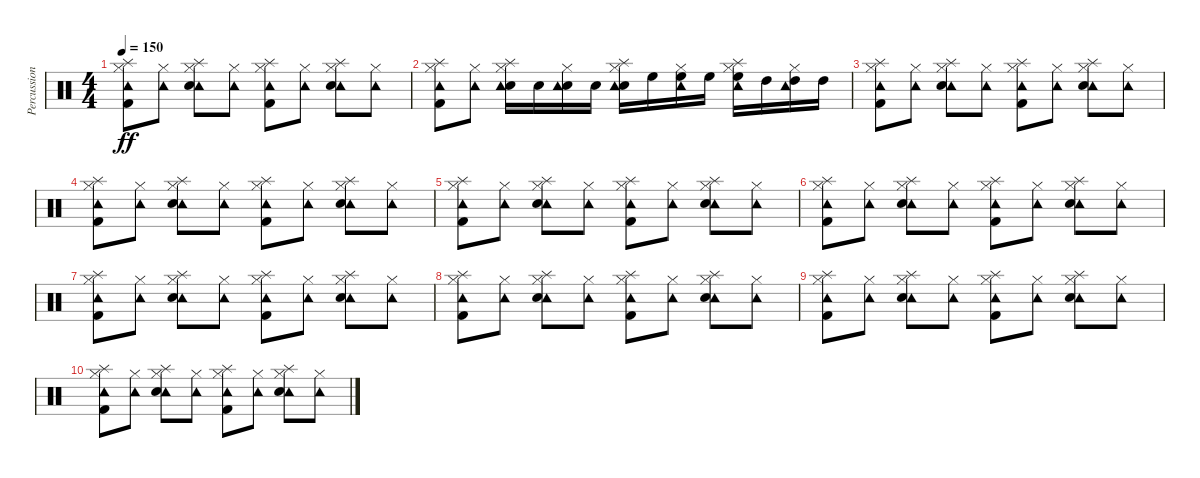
\track ("Percussion" "Percussion") {instrument percussion}
\staff {score}
\articulation defaults
\ts (4 4)
\tempo 150
\clef neutral
\ks c
("Hi-Hat (closed)" "Tambourine (hit)" "Kick (hit) 2" "Splash (hit)").8{dy ff} ("Hi-Hat (closed)" "Tambourine (hit)").8 ("Hi-Hat (closed)" "Tambourine (hit)" "Electric Snare (hit)" "Splash (hit)").8 ("Hi-Hat (closed)" "Tambourine (hit)").8 ("Hi-Hat (closed)" "Tambourine (hit)" "Kick (hit) 2" "Splash (hit)").8 ("Hi-Hat (closed)" "Tambourine (hit)").8 ("Hi-Hat (closed)" "Tambourine (hit)" "Electric Snare (hit)" "Splash (hit)").8 ("Hi-Hat (closed)" "Tambourine (hit)").8 |
("Hi-Hat (closed)" "Kick (hit) 2" "Tambourine (hit)" "Splash (hit)").8 ("Hi-Hat (closed)" "Tambourine (hit)").8 ("Hi-Hat (closed)" "Electric Snare (hit)" "Tambourine (hit)" "Splash (hit)").16 "Electric Snare (hit)".16 ("Hi-Hat (closed)" "Electric Snare (hit)" "Tambourine (hit)").16 "Electric Snare (hit)".16 ("Hi-Hat (closed)" "Electric Snare (hit)" "Tambourine (hit)" "Splash (hit)").16 "High Floor Tom (hit)".16 ("Hi-Hat (closed)" "High Floor Tom (hit)" "Tambourine (hit)").16 "High Floor Tom (hit)".16 ("Hi-Hat (closed)" "High Floor Tom (hit)" "Tambourine (hit)" "Splash (hit)").16 "High Tom (hit)".16 ("Hi-Hat (closed)" "High Tom (hit)" "Tambourine (hit)").16 "High Tom (hit)".16 |
("Hi-Hat (closed)" "Tambourine (hit)" "Kick (hit) 2" "Splash (hit)").8 ("Hi-Hat (closed)" "Tambourine (hit)").8 ("Hi-Hat (closed)" "Tambourine (hit)" "Electric Snare (hit)" "Splash (hit)").8 ("Hi-Hat (closed)" "Tambourine (hit)").8 ("Hi-Hat (closed)" "Tambourine (hit)" "Kick (hit) 2" "Splash (hit)").8 ("Hi-Hat (closed)" "Tambourine (hit)").8 ("Hi-Hat (closed)" "Tambourine (hit)" "Electric Snare (hit)" "Splash (hit)").8 ("Hi-Hat (closed)" "Tambourine (hit)").8 |
("Hi-Hat (closed)" "Tambourine (hit)" "Kick (hit) 2" "Splash (hit)").8 ("Hi-Hat (closed)" "Tambourine (hit)").8 ("Hi-Hat (closed)" "Tambourine (hit)" "Electric Snare (hit)" "Splash (hit)").8 ("Hi-Hat (closed)" "Tambourine (hit)").8 ("Hi-Hat (closed)" "Tambourine (hit)" "Kick (hit) 2" "Splash (hit)").8 ("Hi-Hat (closed)" "Tambourine (hit)").8 ("Hi-Hat (closed)" "Tambourine (hit)" "Electric Snare (hit)" "Splash (hit)").8 ("Hi-Hat (closed)" "Tambourine (hit)").8 |
("Hi-Hat (closed)" "Tambourine (hit)" "Kick (hit) 2" "Splash (hit)").8 ("Hi-Hat (closed)" "Tambourine (hit)").8 ("Hi-Hat (closed)" "Tambourine (hit)" "Electric Snare (hit)" "Splash (hit)").8 ("Hi-Hat (closed)" "Tambourine (hit)").8 ("Hi-Hat (closed)" "Tambourine (hit)" "Kick (hit) 2" "Splash (hit)").8 ("Hi-Hat (closed)" "Tambourine (hit)").8 ("Hi-Hat (closed)" "Tambourine (hit)" "Electric Snare (hit)" "Splash (hit)").8 ("Hi-Hat (closed)" "Tambourine (hit)").8 |
("Hi-Hat (closed)" "Tambourine (hit)" "Kick (hit) 2" "Splash (hit)").8 ("Hi-Hat (closed)" "Tambourine (hit)").8 ("Hi-Hat (closed)" "Tambourine (hit)" "Electric Snare (hit)" "Splash (hit)").8 ("Hi-Hat (closed)" "Tambourine (hit)").8 ("Hi-Hat (closed)" "Tambourine (hit)" "Kick (hit) 2" "Splash (hit)").8 ("Hi-Hat (closed)" "Tambourine (hit)").8 ("Hi-Hat (closed)" "Tambourine (hit)" "Electric Snare (hit)" "Splash (hit)").8 ("Hi-Hat (closed)" "Tambourine (hit)").8 |
("Hi-Hat (closed)" "Tambourine (hit)" "Kick (hit) 2" "Splash (hit)").8 ("Hi-Hat (closed)" "Tambourine (hit)").8 ("Hi-Hat (closed)" "Tambourine (hit)" "Electric Snare (hit)" "Splash (hit)").8 ("Hi-Hat (closed)" "Tambourine (hit)").8 ("Hi-Hat (closed)" "Tambourine (hit)" "Kick (hit) 2" "Splash (hit)").8 ("Hi-Hat (closed)" "Tambourine (hit)").8 ("Hi-Hat (closed)" "Tambourine (hit)" "Electric Snare (hit)" "Splash (hit)").8 ("Hi-Hat (closed)" "Tambourine (hit)").8 |
("Hi-Hat (closed)" "Tambourine (hit)" "Kick (hit) 2" "Splash (hit)").8 ("Hi-Hat (closed)" "Tambourine (hit)").8 ("Hi-Hat (closed)" "Tambourine (hit)" "Electric Snare (hit)" "Splash (hit)").8 ("Hi-Hat (closed)" "Tambourine (hit)").8 ("Hi-Hat (closed)" "Tambourine (hit)" "Kick (hit) 2" "Splash (hit)").8 ("Hi-Hat (closed)" "Tambourine (hit)").8 ("Hi-Hat (closed)" "Tambourine (hit)" "Electric Snare (hit)" "Splash (hit)").8 ("Hi-Hat (closed)" "Tambourine (hit)").8 |
("Hi-Hat (closed)" "Tambourine (hit)" "Kick (hit) 2" "Splash (hit)").8 ("Hi-Hat (closed)" "Tambourine (hit)").8 ("Hi-Hat (closed)" "Tambourine (hit)" "Electric Snare (hit)" "Splash (hit)").8 ("Hi-Hat (closed)" "Tambourine (hit)").8 ("Hi-Hat (closed)" "Tambourine (hit)" "Kick (hit) 2" "Splash (hit)").8 ("Hi-Hat (closed)" "Tambourine (hit)").8 ("Hi-Hat (closed)" "Tambourine (hit)" "Electric Snare (hit)" "Splash (hit)").8 ("Hi-Hat (closed)" "Tambourine (hit)").8 |
("Hi-Hat (closed)" "Tambourine (hit)" "Kick (hit) 2" "Splash (hit)").8 ("Hi-Hat (closed)" "Tambourine (hit)").8 ("Hi-Hat (closed)" "Tambourine (hit)" "Electric Snare (hit)" "Splash (hit)").8 ("Hi-Hat (closed)" "Tambourine (hit)").8 ("Hi-Hat (closed)" "Tambourine (hit)" "Kick (hit) 2" "Splash (hit)").8 ("Hi-Hat (closed)" "Tambourine (hit)").8 ("Hi-Hat (closed)" "Tambourine (hit)" "Electric Snare (hit)" "Splash (hit)").8 ("Hi-Hat (closed)" "Tambourine (hit)").8
